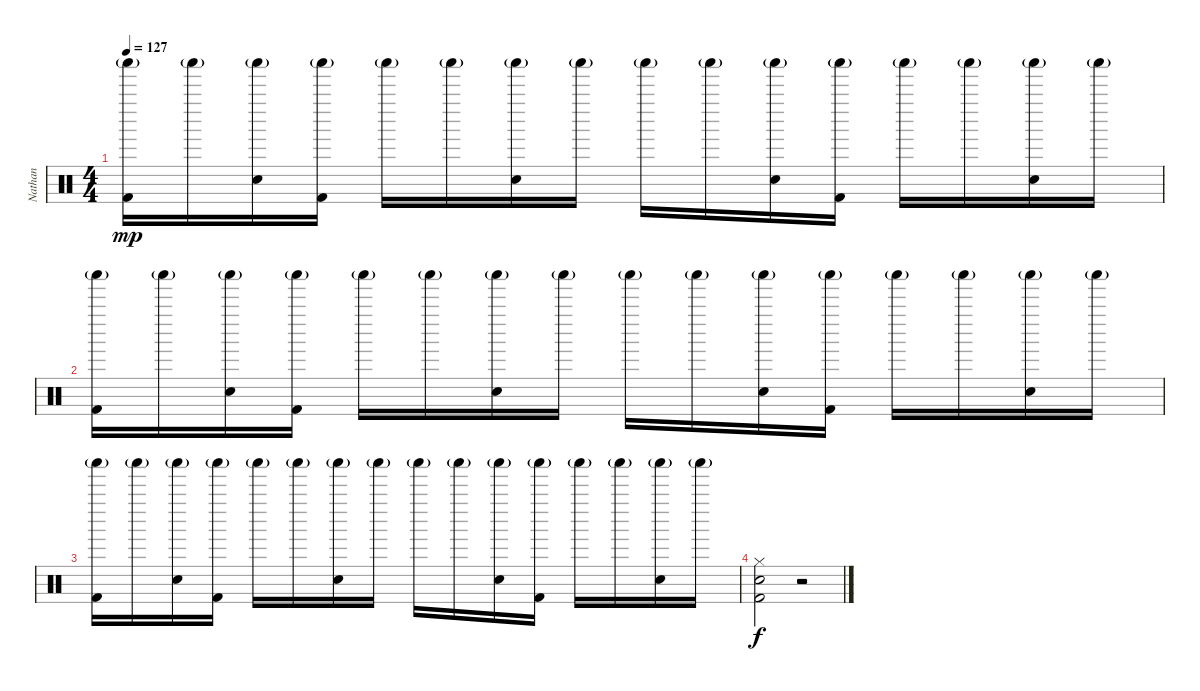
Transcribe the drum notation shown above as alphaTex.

\track ("Nathan" "Nathan") {instrument percussion}
\staff {score}
\articulation defaults
\ts (4 4)
\tempo 127
\clef neutral
\ks c
("Shaker (hit)"{g} "Kick (hit) 2").16{dy mp} "Shaker (hit)"{g}.16 ("Shaker (hit)"{g} "Electric Snare (hit)").16 ("Shaker (hit)"{g} "Kick (hit) 2").16 "Shaker (hit)"{g}.16 "Shaker (hit)"{g}.16 ("Shaker (hit)"{g} "Electric Snare (hit)").16 "Shaker (hit)"{g}.16 "Shaker (hit)"{g}.16 "Shaker (hit)"{g}.16 ("Shaker (hit)"{g} "Electric Snare (hit)").16 ("Shaker (hit)"{g} "Kick (hit) 2").16 "Shaker (hit)"{g}.16 "Shaker (hit)"{g}.16 ("Shaker (hit)"{g} "Electric Snare (hit)").16 "Shaker (hit)"{g}.16 |
("Shaker (hit)"{g} "Kick (hit) 2").16 "Shaker (hit)"{g}.16 ("Shaker (hit)"{g} "Electric Snare (hit)").16 ("Shaker (hit)"{g} "Kick (hit) 2").16 "Shaker (hit)"{g}.16 "Shaker (hit)"{g}.16 ("Shaker (hit)"{g} "Electric Snare (hit)").16 "Shaker (hit)"{g}.16 "Shaker (hit)"{g}.16 "Shaker (hit)"{g}.16 ("Shaker (hit)"{g} "Electric Snare (hit)").16 ("Shaker (hit)"{g} "Kick (hit) 2").16 "Shaker (hit)"{g}.16 "Shaker (hit)"{g}.16 ("Shaker (hit)"{g} "Electric Snare (hit)").16 "Shaker (hit)"{g}.16 |
("Shaker (hit)"{g} "Kick (hit) 2").16 "Shaker (hit)"{g}.16 ("Shaker (hit)"{g} "Electric Snare (hit)").16 ("Shaker (hit)"{g} "Kick (hit) 2").16 "Shaker (hit)"{g}.16 "Shaker (hit)"{g}.16 ("Shaker (hit)"{g} "Electric Snare (hit)").16 "Shaker (hit)"{g}.16 "Shaker (hit)"{g}.16 "Shaker (hit)"{g}.16 ("Shaker (hit)"{g} "Electric Snare (hit)").16 ("Shaker (hit)"{g} "Kick (hit) 2").16 "Shaker (hit)"{g}.16 "Shaker (hit)"{g}.16 ("Shaker (hit)"{g} "Electric Snare (hit)").16 "Shaker (hit)"{g}.16 |
("Hi-Hat (closed)" "Electric Snare (hit)" "Kick (hit) 2").2{dy f} r.2
